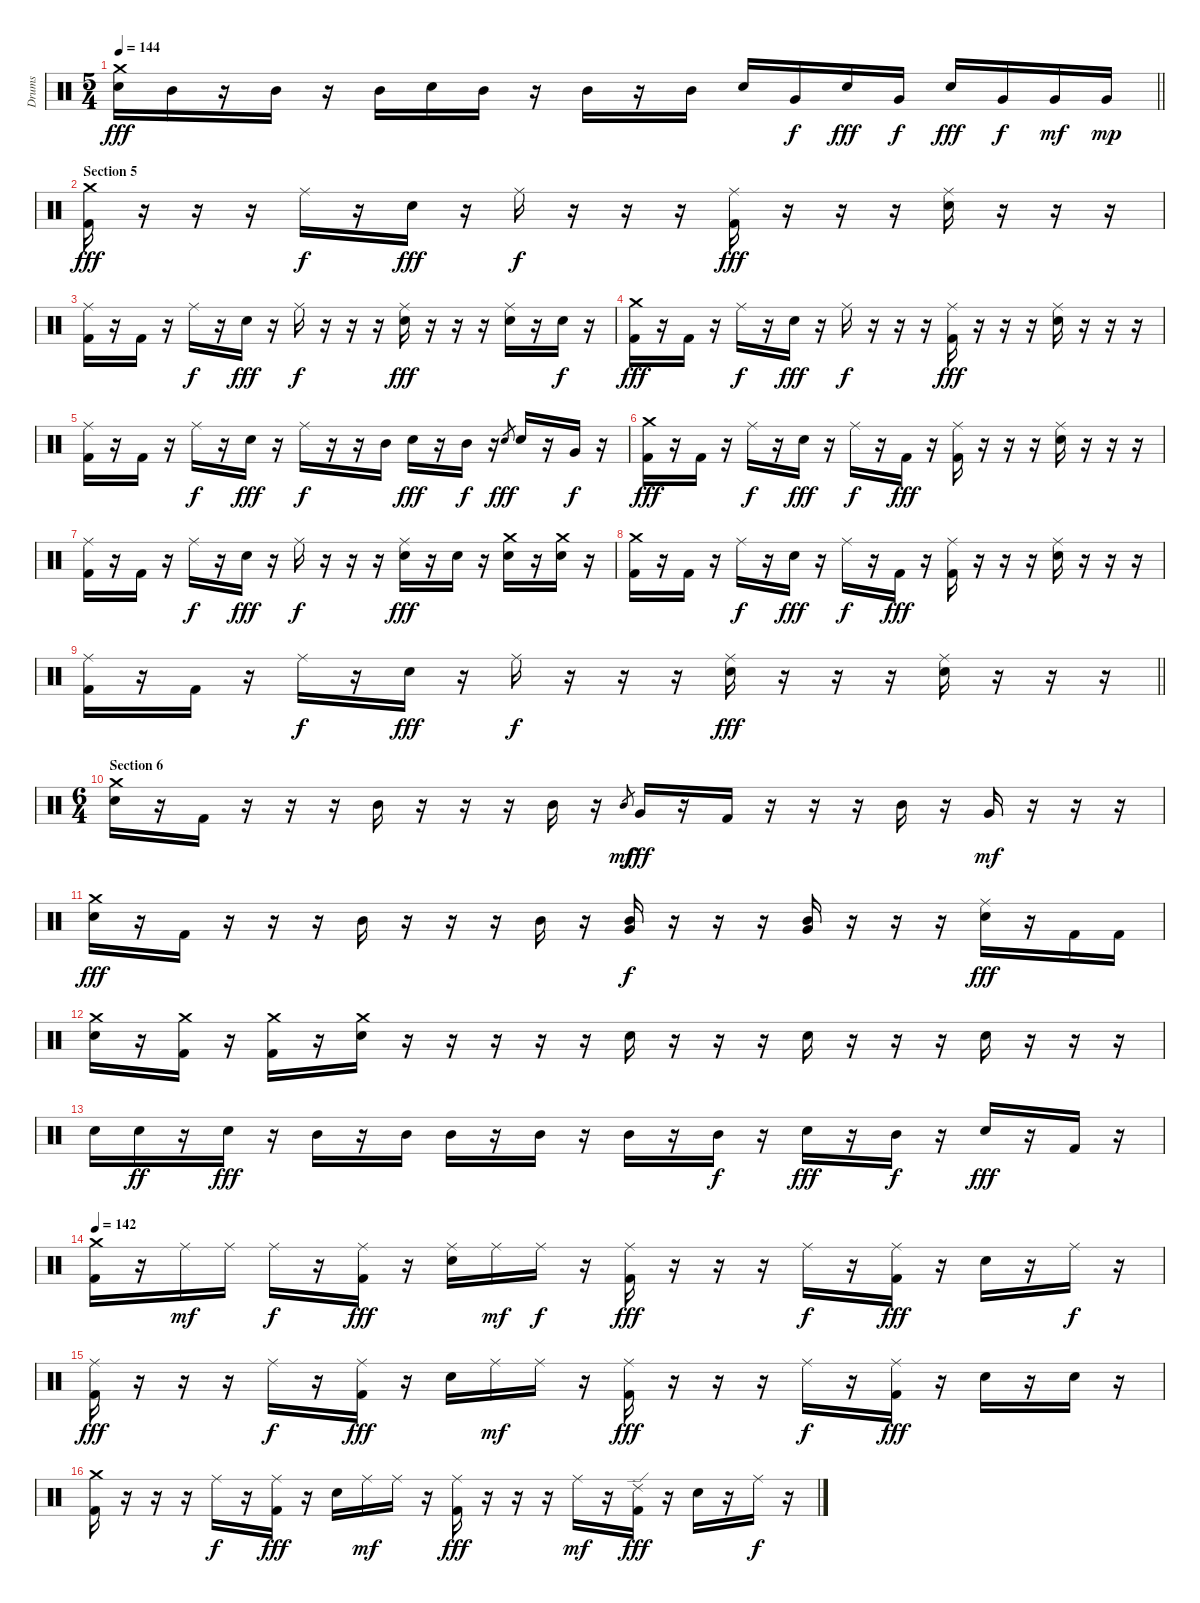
\track ("Drums" "Drums") {instrument percussion}
\staff {score}
\articulation defaults
\ts (5 4)
\tempo 144
\clef neutral
\barLineRight lightlight
\ks c
("Crash medium (hit)" "Electric Snare (hit)").16{dy fff} "Mid Tom (hit)".16 r.16 "Mid Tom (hit)".16 r.16 "Mid Tom (hit)".16 "Electric Snare (hit)".16 "Mid Tom (hit)".16 r.16 "Mid Tom (hit)".16 r.16 "Mid Tom (hit)".16 "Electric Snare (hit)".16 "Very Low Tom (hit)".16{dy f} "Electric Snare (hit)".16{dy fff} "Very Low Tom (hit)".16{dy f} "Electric Snare (hit)".16{dy fff} "Very Low Tom (hit)".16{dy f} "Very Low Tom (hit)".16{dy mf} "Very Low Tom (hit)".16{dy mp} |
\section ("" "Section 5")
("Crash medium (hit)" "Kick (hit) 2").16{dy fff} r.16 r.16 r.16 "Ride (middle)".16{dy f} r.16 "Electric Snare (hit)".16{dy fff} r.16 "Ride (middle)".16{dy f} r.16 r.16 r.16 ("Ride (middle)" "Kick (hit) 2").16{dy fff} r.16 r.16 r.16 ("Ride (middle)" "Electric Snare (hit)").16 r.16 r.16 r.16 |
("Ride (middle)" "Kick (hit) 2").16 r.16 "Kick (hit) 2".16 r.16 "Ride (middle)".16{dy f} r.16 "Electric Snare (hit)".16{dy fff} r.16 "Ride (middle)".16{dy f} r.16 r.16 r.16 ("Ride (middle)" "Electric Snare (hit)").16{dy fff} r.16 r.16 r.16 ("Ride (middle)" "Electric Snare (hit)").16 r.16 "Electric Snare (hit)".16{dy f} r.16 |
("Crash medium (hit)" "Kick (hit) 2").16{dy fff} r.16 "Kick (hit) 2".16 r.16 "Ride (middle)".16{dy f} r.16 "Electric Snare (hit)".16{dy fff} r.16 "Ride (middle)".16{dy f} r.16 r.16 r.16 ("Ride (middle)" "Kick (hit) 2").16{dy fff} r.16 r.16 r.16 ("Ride (middle)" "Electric Snare (hit)").16 r.16 r.16 r.16 |
("Ride (middle)" "Kick (hit) 2").16 r.16 "Kick (hit) 2".16 r.16 "Ride (middle)".16{dy f} r.16 "Electric Snare (hit)".16{dy fff} r.16 "Ride (middle)".16{dy f} r.16 r.16 "Mid Tom (hit)".16 "Electric Snare (hit)".16{dy fff} r.16 "Mid Tom (hit)".16{dy f} r.16 "Electric Snare (hit)".8{gr dy fff} "Electric Snare (hit)".16 r.16 "Very Low Tom (hit)".16{dy f} r.16 |
("Crash medium (hit)" "Kick (hit) 2").16{dy fff} r.16 "Kick (hit) 2".16 r.16 "Ride (middle)".16{dy f} r.16 "Electric Snare (hit)".16{dy fff} r.16 "Ride (middle)".16{dy f} r.16 "Kick (hit) 2".16{dy fff} r.16 ("Ride (middle)" "Kick (hit) 2").16 r.16 r.16 r.16 ("Ride (middle)" "Electric Snare (hit)").16 r.16 r.16 r.16 |
("Ride (middle)" "Kick (hit) 2").16 r.16 "Kick (hit) 2".16 r.16 "Ride (middle)".16{dy f} r.16 "Electric Snare (hit)".16{dy fff} r.16 "Ride (middle)".16{dy f} r.16 r.16 r.16 ("Ride (middle)" "Electric Snare (hit)").16{dy fff} r.16 "Electric Snare (hit)".16 r.16 ("Crash medium (hit)" "Electric Snare (hit)").16 r.16 ("Crash medium (hit)" "Electric Snare (hit)").16 r.16 |
("Crash medium (hit)" "Kick (hit) 2").16 r.16 "Kick (hit) 2".16 r.16 "Ride (middle)".16{dy f} r.16 "Electric Snare (hit)".16{dy fff} r.16 "Ride (middle)".16{dy f} r.16 "Kick (hit) 2".16{dy fff} r.16 ("Ride (middle)" "Kick (hit) 2").16 r.16 r.16 r.16 ("Ride (middle)" "Electric Snare (hit)").16 r.16 r.16 r.16 |
\barLineRight lightlight
("Ride (middle)" "Kick (hit) 2").16 r.16 "Kick (hit) 2".16 r.16 "Ride (middle)".16{dy f} r.16 "Electric Snare (hit)".16{dy fff} r.16 "Ride (middle)".16{dy f} r.16 r.16 r.16 ("Ride (middle)" "Electric Snare (hit)").16{dy fff} r.16 r.16 r.16 ("Ride (middle)" "Electric Snare (hit)").16 r.16 r.16 r.16 |
\ts (6 4)
\section ("" "Section 6")
("Crash medium (hit)" "Electric Snare (hit)").16 r.16 "Kick (hit) 2".16 r.16 r.16 r.16 "Mid Tom (hit)".16 r.16 r.16 r.16 "Mid Tom (hit)".16 r.16 "Mid Tom (hit)".8{gr dy mf} "Very Low Tom (hit)".16{dy fff} r.16 "Kick (hit) 2".16 r.16 r.16 r.16 "Mid Tom (hit)".16 r.16 "Very Low Tom (hit)".16{dy mf} r.16 r.16 r.16 |
("Crash medium (hit)" "Electric Snare (hit)").16{dy fff} r.16 "Kick (hit) 2".16 r.16 r.16 r.16 "Mid Tom (hit)".16 r.16 r.16 r.16 "Mid Tom (hit)".16 r.16 ("Mid Tom (hit)" "Very Low Tom (hit)").16{dy f} r.16 r.16 r.16 ("Mid Tom (hit)" "Very Low Tom (hit)").16 r.16 r.16 r.16 ("Ride (middle)" "Electric Snare (hit)").16{dy fff} r.16 "Kick (hit) 2".16 "Kick (hit) 2".16 |
("Crash medium (hit)" "Electric Snare (hit)").16 r.16 ("Crash medium (hit)" "Kick (hit) 2").16 r.16 ("Crash medium (hit)" "Kick (hit) 2").16 r.16 ("Crash medium (hit)" "Electric Snare (hit)").16 r.16 r.16 r.16 r.16 r.16 "Electric Snare (hit)".16 r.16 r.16 r.16 "Electric Snare (hit)".16 r.16 r.16 r.16 "Electric Snare (hit)".16 r.16 r.16 r.16 |
"Electric Snare (hit)".16 "Electric Snare (hit)".16{dy ff} r.16 "Electric Snare (hit)".16{dy fff} r.16 "Mid Tom (hit)".16 r.16 "Mid Tom (hit)".16 "Mid Tom (hit)".16 r.16 "Mid Tom (hit)".16 r.16 "Mid Tom (hit)".16 r.16 "Mid Tom (hit)".16{dy f} r.16 "Electric Snare (hit)".16{dy fff} r.16 "Mid Tom (hit)".16{dy f} r.16 "Electric Snare (hit)".16{dy fff} r.16 "Kick (hit) 2".16 r.16 |
\tempo 142
("Crash medium (hit)" "Kick (hit) 2").16 r.16 "Ride (middle)".16{dy mf} "Ride (middle)".16 "Ride (middle)".16{dy f} r.16 ("Ride (middle)" "Kick (hit) 2").16{dy fff} r.16 ("Ride (middle)" "Electric Snare (hit)").16 "Ride (middle)".16{dy mf} "Ride (middle)".16{dy f} r.16 ("Ride (middle)" "Kick (hit) 2").16{dy fff} r.16 r.16 r.16 "Ride (middle)".16{dy f} r.16 ("Ride (middle)" "Kick (hit) 2").16{dy fff} r.16 "Electric Snare (hit)".16 r.16 "Ride (middle)".16{dy f} r.16 |
("Ride (middle)" "Kick (hit) 2").16{dy fff} r.16 r.16 r.16 "Ride (middle)".16{dy f} r.16 ("Ride (middle)" "Kick (hit) 2").16{dy fff} r.16 "Electric Snare (hit)".16 "Ride (middle)".16{dy mf} "Ride (middle)".16 r.16 ("Ride (middle)" "Kick (hit) 2").16{dy fff} r.16 r.16 r.16 "Ride (middle)".16{dy f} r.16 ("Ride (middle)" "Kick (hit) 2").16{dy fff} r.16 "Electric Snare (hit)".16 r.16 "Electric Snare (hit)".16 r.16 |
("Crash medium (hit)" "Kick (hit) 2").16 r.16 r.16 r.16 "Ride (middle)".16{dy f} r.16 ("Ride (middle)" "Kick (hit) 2").16{dy fff} r.16 "Electric Snare (hit)".16 "Ride (middle)".16{dy mf} "Ride (middle)".16 r.16 ("Ride (middle)" "Kick (hit) 2").16{dy fff} r.16 r.16 r.16 "Ride (middle)".16{dy mf} r.16 ("Ride (edge) 2" "Kick (hit) 2").16{dy fff} r.16 "Electric Snare (hit)".16 r.16 "Ride (middle)".16{dy f} r.16
